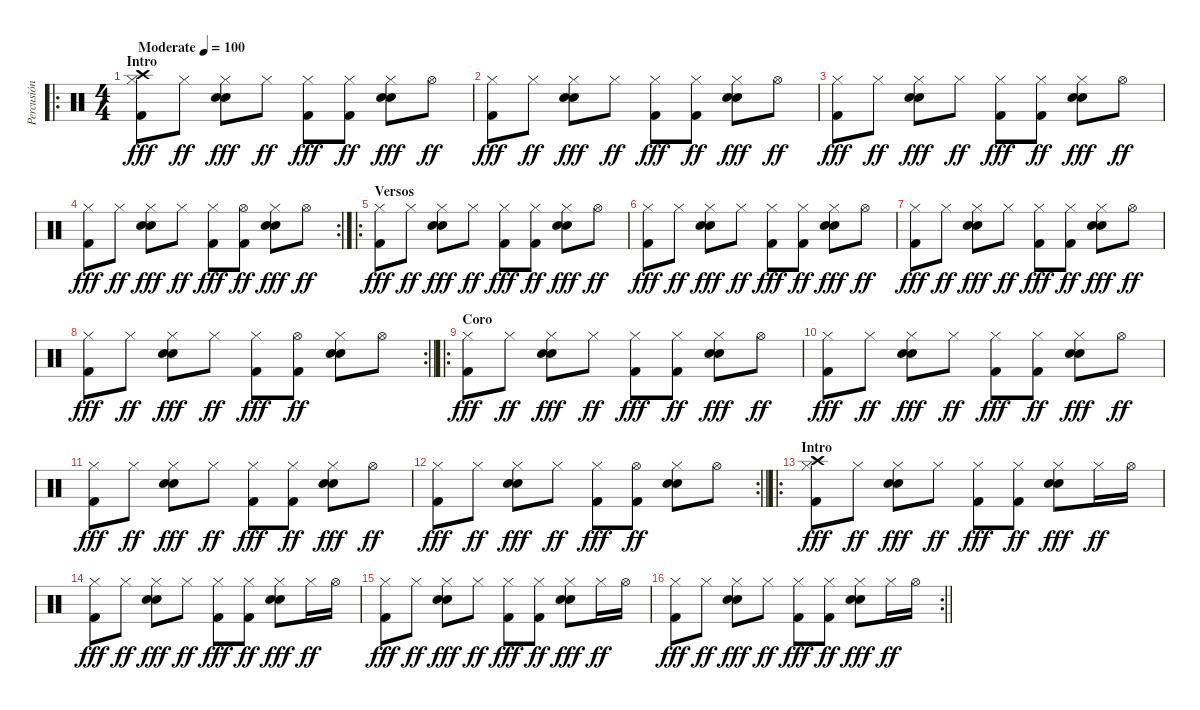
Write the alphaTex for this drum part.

\track ("Percusión" "Percusión") {instrument percussion}
\staff {score}
\articulation defaults
\ro
\ts (4 4)
\section ("" "Intro")
\tempo (100 "Moderate")
\clef neutral
\ks c
("Crash high (hit)" "Hi-Hat (closed)" "Kick (hit) 2").8{dy fff} "Hi-Hat (closed)".8{dy ff} ("Hi-Hat (closed)" "Electric Snare (hit)" "Electric Snare (hit)").8{dy fff} "Hi-Hat (closed)".8{dy ff} ("Hi-Hat (closed)" "Kick (hit) 2").8{dy fff} ("Hi-Hat (closed)" "Kick (hit) 2").8{dy ff} ("Hi-Hat (closed)" "Electric Snare (hit)" "Electric Snare (hit)").8{dy fff} "Hi-Hat (open)".8{dy ff} |
("Hi-Hat (closed)" "Kick (hit) 2").8{dy fff} "Hi-Hat (closed)".8{dy ff} ("Hi-Hat (closed)" "Electric Snare (hit)" "Electric Snare (hit)").8{dy fff} "Hi-Hat (closed)".8{dy ff} ("Hi-Hat (closed)" "Kick (hit) 2").8{dy fff} ("Hi-Hat (closed)" "Kick (hit) 2").8{dy ff} ("Hi-Hat (closed)" "Electric Snare (hit)" "Electric Snare (hit)").8{dy fff} "Hi-Hat (open)".8{dy ff} |
("Hi-Hat (closed)" "Kick (hit) 2").8{dy fff} "Hi-Hat (closed)".8{dy ff} ("Hi-Hat (closed)" "Electric Snare (hit)" "Electric Snare (hit)").8{dy fff} "Hi-Hat (closed)".8{dy ff} ("Hi-Hat (closed)" "Kick (hit) 2").8{dy fff} ("Hi-Hat (closed)" "Kick (hit) 2").8{dy ff} ("Hi-Hat (closed)" "Electric Snare (hit)" "Electric Snare (hit)").8{dy fff} "Hi-Hat (open)".8{dy ff} |
\rc 2
("Hi-Hat (closed)" "Kick (hit) 2").8{dy fff} "Hi-Hat (closed)".8{dy ff} ("Hi-Hat (closed)" "Electric Snare (hit)" "Electric Snare (hit)").8{dy fff} "Hi-Hat (closed)".8{dy ff} ("Hi-Hat (closed)" "Kick (hit) 2").8{dy fff} ("Hi-Hat (open)" "Kick (hit) 2").8{dy ff} ("Hi-Hat (closed)" "Electric Snare (hit)" "Electric Snare (hit)").8{dy fff} "Hi-Hat (open)".8{dy ff} |
\ro
\section ("" "Versos")
("Hi-Hat (closed)" "Kick (hit) 2").8{dy fff} "Hi-Hat (closed)".8{dy ff} ("Hi-Hat (closed)" "Electric Snare (hit)" "Electric Snare (hit)").8{dy fff} "Hi-Hat (closed)".8{dy ff} ("Hi-Hat (closed)" "Kick (hit) 2").8{dy fff} ("Hi-Hat (closed)" "Kick (hit) 2").8{dy ff} ("Hi-Hat (closed)" "Electric Snare (hit)" "Electric Snare (hit)").8{dy fff} "Hi-Hat (open)".8{dy ff} |
("Hi-Hat (closed)" "Kick (hit) 2").8{dy fff} "Hi-Hat (closed)".8{dy ff} ("Hi-Hat (closed)" "Electric Snare (hit)" "Electric Snare (hit)").8{dy fff} "Hi-Hat (closed)".8{dy ff} ("Hi-Hat (closed)" "Kick (hit) 2").8{dy fff} ("Hi-Hat (closed)" "Kick (hit) 2").8{dy ff} ("Hi-Hat (closed)" "Electric Snare (hit)" "Electric Snare (hit)").8{dy fff} "Hi-Hat (open)".8{dy ff} |
("Hi-Hat (closed)" "Kick (hit) 2").8{dy fff} "Hi-Hat (closed)".8{dy ff} ("Hi-Hat (closed)" "Electric Snare (hit)" "Electric Snare (hit)").8{dy fff} "Hi-Hat (closed)".8{dy ff} ("Hi-Hat (closed)" "Kick (hit) 2").8{dy fff} ("Hi-Hat (closed)" "Kick (hit) 2").8{dy ff} ("Hi-Hat (closed)" "Electric Snare (hit)" "Electric Snare (hit)").8{dy fff} "Hi-Hat (open)".8{dy ff} |
\rc 2
\barLineRight lightlight
("Hi-Hat (closed)" "Kick (hit) 2").8{dy fff} "Hi-Hat (closed)".8{dy ff} ("Hi-Hat (closed)" "Electric Snare (hit)" "Electric Snare (hit)").8{dy fff} "Hi-Hat (closed)".8{dy ff} ("Hi-Hat (closed)" "Kick (hit) 2").8{dy fff} ("Hi-Hat (open)" "Kick (hit) 2").8{dy ff} ("Hi-Hat (closed)" "Electric Snare (hit)" "Electric Snare (hit)").8 "Hi-Hat (open)".8 |
\ro
\section ("" "Coro")
("Hi-Hat (closed)" "Kick (hit) 2").8{dy fff} "Hi-Hat (closed)".8{dy ff} ("Hi-Hat (closed)" "Electric Snare (hit)" "Electric Snare (hit)").8{dy fff} "Hi-Hat (closed)".8{dy ff} ("Hi-Hat (closed)" "Kick (hit) 2").8{dy fff} ("Hi-Hat (closed)" "Kick (hit) 2").8{dy ff} ("Hi-Hat (closed)" "Electric Snare (hit)" "Electric Snare (hit)").8{dy fff} "Hi-Hat (open)".8{dy ff} |
("Hi-Hat (closed)" "Kick (hit) 2").8{dy fff} "Hi-Hat (closed)".8{dy ff} ("Hi-Hat (closed)" "Electric Snare (hit)" "Electric Snare (hit)").8{dy fff} "Hi-Hat (closed)".8{dy ff} ("Hi-Hat (closed)" "Kick (hit) 2").8{dy fff} ("Hi-Hat (closed)" "Kick (hit) 2").8{dy ff} ("Hi-Hat (closed)" "Electric Snare (hit)" "Electric Snare (hit)").8{dy fff} "Hi-Hat (open)".8{dy ff} |
("Hi-Hat (closed)" "Kick (hit) 2").8{dy fff} "Hi-Hat (closed)".8{dy ff} ("Hi-Hat (closed)" "Electric Snare (hit)" "Electric Snare (hit)").8{dy fff} "Hi-Hat (closed)".8{dy ff} ("Hi-Hat (closed)" "Kick (hit) 2").8{dy fff} ("Hi-Hat (closed)" "Kick (hit) 2").8{dy ff} ("Hi-Hat (closed)" "Electric Snare (hit)" "Electric Snare (hit)").8{dy fff} "Hi-Hat (open)".8{dy ff} |
\rc 2
\barLineRight lightlight
("Hi-Hat (closed)" "Kick (hit) 2").8{dy fff} "Hi-Hat (closed)".8{dy ff} ("Hi-Hat (closed)" "Electric Snare (hit)" "Electric Snare (hit)").8{dy fff} "Hi-Hat (closed)".8{dy ff} ("Hi-Hat (closed)" "Kick (hit) 2").8{dy fff} ("Hi-Hat (open)" "Kick (hit) 2").8{dy ff} ("Hi-Hat (closed)" "Electric Snare (hit)" "Electric Snare (hit)").8 "Hi-Hat (open)".8 |
\ro
\section ("" "Intro")
("Crash high (hit)" "Hi-Hat (closed)" "Kick (hit) 2").8{dy fff} "Hi-Hat (closed)".8{dy ff} ("Hi-Hat (closed)" "Electric Snare (hit)" "Electric Snare (hit)").8{dy fff} "Hi-Hat (closed)".8{dy ff} ("Hi-Hat (closed)" "Kick (hit) 2").8{dy fff} ("Hi-Hat (closed)" "Kick (hit) 2").8{dy ff} ("Hi-Hat (closed)" "Electric Snare (hit)" "Electric Snare (hit)").8{dy fff} "Hi-Hat (closed)".16{dy ff} "Hi-Hat (open)".16 |
("Hi-Hat (closed)" "Kick (hit) 2").8{dy fff} "Hi-Hat (closed)".8{dy ff} ("Hi-Hat (closed)" "Electric Snare (hit)" "Electric Snare (hit)").8{dy fff} "Hi-Hat (closed)".8{dy ff} ("Hi-Hat (closed)" "Kick (hit) 2").8{dy fff} ("Hi-Hat (closed)" "Kick (hit) 2").8{dy ff} ("Hi-Hat (closed)" "Electric Snare (hit)" "Electric Snare (hit)").8{dy fff} "Hi-Hat (closed)".16{dy ff} "Hi-Hat (open)".16 |
("Hi-Hat (closed)" "Kick (hit) 2").8{dy fff} "Hi-Hat (closed)".8{dy ff} ("Hi-Hat (closed)" "Electric Snare (hit)" "Electric Snare (hit)").8{dy fff} "Hi-Hat (closed)".8{dy ff} ("Hi-Hat (closed)" "Kick (hit) 2").8{dy fff} ("Hi-Hat (closed)" "Kick (hit) 2").8{dy ff} ("Hi-Hat (closed)" "Electric Snare (hit)" "Electric Snare (hit)").8{dy fff} "Hi-Hat (closed)".16{dy ff} "Hi-Hat (open)".16 |
\rc 2
\barLineRight lightlight
("Hi-Hat (closed)" "Kick (hit) 2").8{dy fff} "Hi-Hat (closed)".8{dy ff} ("Hi-Hat (closed)" "Electric Snare (hit)" "Electric Snare (hit)").8{dy fff} "Hi-Hat (closed)".8{dy ff} ("Hi-Hat (closed)" "Kick (hit) 2").8{dy fff} ("Hi-Hat (closed)" "Kick (hit) 2").8{dy ff} ("Hi-Hat (closed)" "Electric Snare (hit)" "Electric Snare (hit)").8{dy fff} "Hi-Hat (closed)".16{dy ff} "Hi-Hat (open)".16
